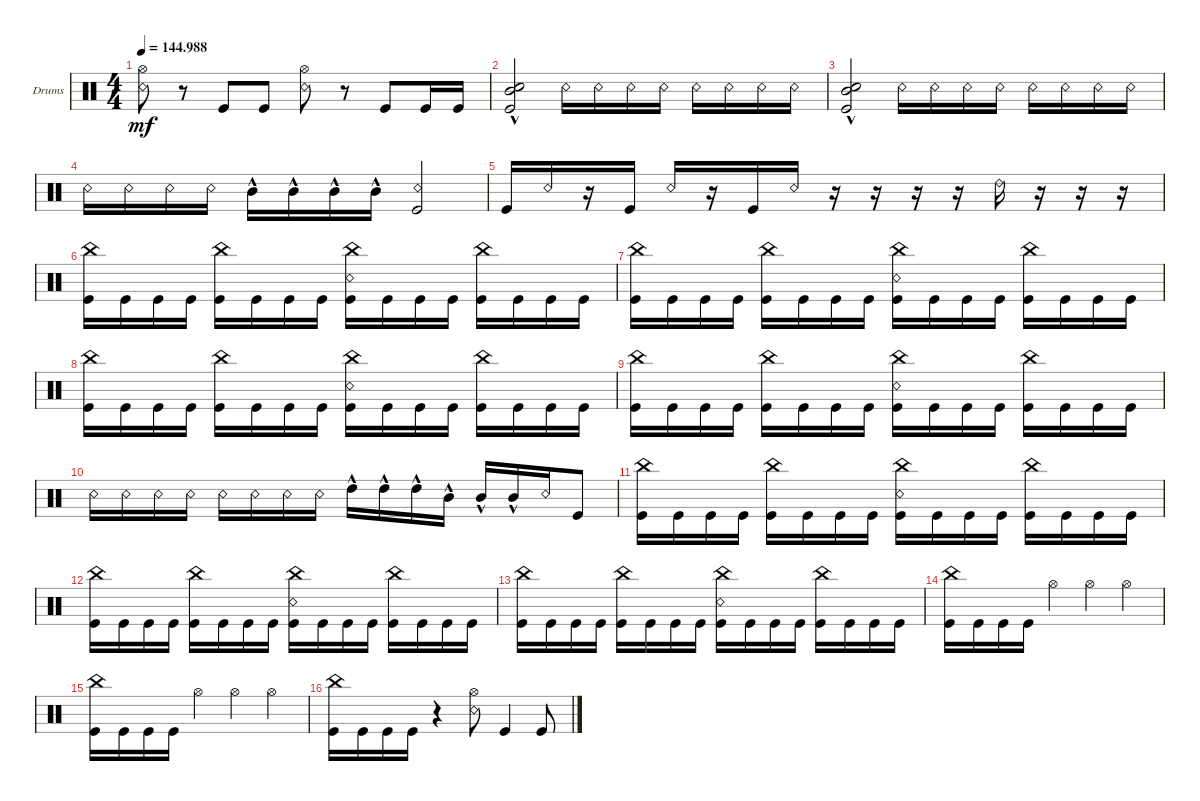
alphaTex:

\defaultSystemsLayout 4
\bracketExtendMode groupsimilarinstruments
\firstSystemTrackNameOrientation horizontal
\otherSystemsTrackNameOrientation horizontal
\track ("Drumkit" "Drums") {solo instrument percussion}
\staff {score}
\articulation defaults
\ts (4 4)
\tempo
144.988
\accidentals auto
\clef neutral
\ottava regular
\simile none
\ks c
("Snare (rim shot)" "Hi-Hat (open)").8{dy mf} r.8 "Kick (hit)".8 "Kick (hit)".8 ("Snare (rim shot)" "Hi-Hat (open)").8 r.8 "Kick (hit)".8 "Kick (hit)".16 "Kick (hit)".16 |
("Snare (hit) 2"{hac} "Kick (hit)" "Mid Tom (hit)"{hac}).2 "Snare (rim shot)".16 "Snare (rim shot)".16 "Snare (rim shot)".16 "Snare (rim shot)".16 "Snare (rim shot)".16 "Snare (rim shot)".16 "Snare (rim shot)".16 "Snare (rim shot)".16 |
("Snare (hit) 2"{hac} "Kick (hit)" "Mid Tom (hit)"{hac}).2 "Snare (rim shot)".16 "Snare (rim shot)".16 "Snare (rim shot)".16 "Snare (rim shot)".16 "Snare (rim shot)".16 "Snare (rim shot)".16 "Snare (rim shot)".16 "Snare (rim shot)".16 |
"Snare (rim shot)".16 "Snare (rim shot)".16 "Snare (rim shot)".16 "Snare (rim shot)".16 "Mid Tom (hit)"{hac}.16 "Mid Tom (hit)"{hac}.16 "Mid Tom (hit)"{hac}.16 "Mid Tom (hit)"{hac}.16 ("Kick (hit)" "Snare (rim shot)").2 |
"Kick (hit)".16 "Snare (rim shot)".16 r.16 "Kick (hit)".16 "Snare (rim shot)".16 r.16 "Kick (hit)".16 "Snare (rim shot)".16 r.16 r.16 r.16 r.16 "Ride (bell) 2".16 r.16 r.16 r.16 |
("Kick (hit)" "China (hit)").16 "Kick (hit)".16 "Kick (hit)".16 "Kick (hit)".16 ("Kick (hit)" "China (hit)").16 "Kick (hit)".16 "Kick (hit)".16 "Kick (hit)".16 ("Kick (hit)" "China (hit)" "Snare (rim shot)").16 "Kick (hit)".16 "Kick (hit)".16 "Kick (hit)".16 ("Kick (hit)" "China (hit)").16 "Kick (hit)".16 "Kick (hit)".16 "Kick (hit)".16 |
("Kick (hit)" "China (hit)").16 "Kick (hit)".16 "Kick (hit)".16 "Kick (hit)".16 ("Kick (hit)" "China (hit)").16 "Kick (hit)".16 "Kick (hit)".16 "Kick (hit)".16 ("Kick (hit)" "China (hit)" "Snare (rim shot)").16 "Kick (hit)".16 "Kick (hit)".16 "Kick (hit)".16 ("Kick (hit)" "China (hit)").16 "Kick (hit)".16 "Kick (hit)".16 "Kick (hit)".16 |
("Kick (hit)" "China (hit)").16 "Kick (hit)".16 "Kick (hit)".16 "Kick (hit)".16 ("Kick (hit)" "China (hit)").16 "Kick (hit)".16 "Kick (hit)".16 "Kick (hit)".16 ("Kick (hit)" "China (hit)" "Snare (rim shot)").16 "Kick (hit)".16 "Kick (hit)".16 "Kick (hit)".16 ("Kick (hit)" "China (hit)").16 "Kick (hit)".16 "Kick (hit)".16 "Kick (hit)".16 |
("Kick (hit)" "China (hit)").16 "Kick (hit)".16 "Kick (hit)".16 "Kick (hit)".16 ("Kick (hit)" "China (hit)").16 "Kick (hit)".16 "Kick (hit)".16 "Kick (hit)".16 ("Kick (hit)" "China (hit)" "Snare (rim shot)").16 "Kick (hit)".16 "Kick (hit)".16 "Kick (hit)".16 ("Kick (hit)" "China (hit)").16 "Kick (hit)".16 "Kick (hit)".16 "Kick (hit)".16 |
"Snare (rim shot)".16 "Snare (rim shot)".16 "Snare (rim shot)".16 "Snare (rim shot)".16 "Snare (rim shot)".16 "Snare (rim shot)".16 "Snare (rim shot)".16 "Snare (rim shot)".16 "High Tom (hit)"{hac}.16 "High Tom (hit)"{hac}.16 "High Tom (hit)"{hac}.16 "Mid Tom (hit)"{hac}.16 "Mid Tom (hit)"{hac}.16 "Mid Tom (hit)"{hac}.16 "Snare (rim shot)".16 "Kick (hit)".8 |
("Kick (hit)" "China (hit)").16 "Kick (hit)".16 "Kick (hit)".16 "Kick (hit)".16 ("Kick (hit)" "China (hit)").16 "Kick (hit)".16 "Kick (hit)".16 "Kick (hit)".16 ("Kick (hit)" "China (hit)" "Snare (rim shot)").16 "Kick (hit)".16 "Kick (hit)".16 "Kick (hit)".16 ("Kick (hit)" "China (hit)").16 "Kick (hit)".16 "Kick (hit)".16 "Kick (hit)".16 |
("Kick (hit)" "China (hit)").16 "Kick (hit)".16 "Kick (hit)".16 "Kick (hit)".16 ("Kick (hit)" "China (hit)").16 "Kick (hit)".16 "Kick (hit)".16 "Kick (hit)".16 ("Kick (hit)" "China (hit)" "Snare (rim shot)").16 "Kick (hit)".16 "Kick (hit)".16 "Kick (hit)".16 ("Kick (hit)" "China (hit)").16 "Kick (hit)".16 "Kick (hit)".16 "Kick (hit)".16 |
("Kick (hit)" "China (hit)").16 "Kick (hit)".16 "Kick (hit)".16 "Kick (hit)".16 ("Kick (hit)" "China (hit)").16 "Kick (hit)".16 "Kick (hit)".16 "Kick (hit)".16 ("Kick (hit)" "China (hit)" "Snare (rim shot)").16 "Kick (hit)".16 "Kick (hit)".16 "Kick (hit)".16 ("Kick (hit)" "China (hit)").16 "Kick (hit)".16 "Kick (hit)".16 "Kick (hit)".16 |
("Kick (hit)" "China (hit)").16 "Kick (hit)".16 "Kick (hit)".16 "Kick (hit)".16 "Hi-Hat (open)".4 "Hi-Hat (open)".4 "Hi-Hat (open)".4 |
("Kick (hit)" "China (hit)").16 "Kick (hit)".16 "Kick (hit)".16 "Kick (hit)".16 "Hi-Hat (open)".4 "Hi-Hat (open)".4 "Hi-Hat (open)".4 |
("Kick (hit)" "China (hit)").16 "Kick (hit)".16 "Kick (hit)".16 "Kick (hit)".16 r.4 ("Hi-Hat (open)" "Snare (rim shot)").8 "Kick (hit)".4 "Kick (hit)".8
